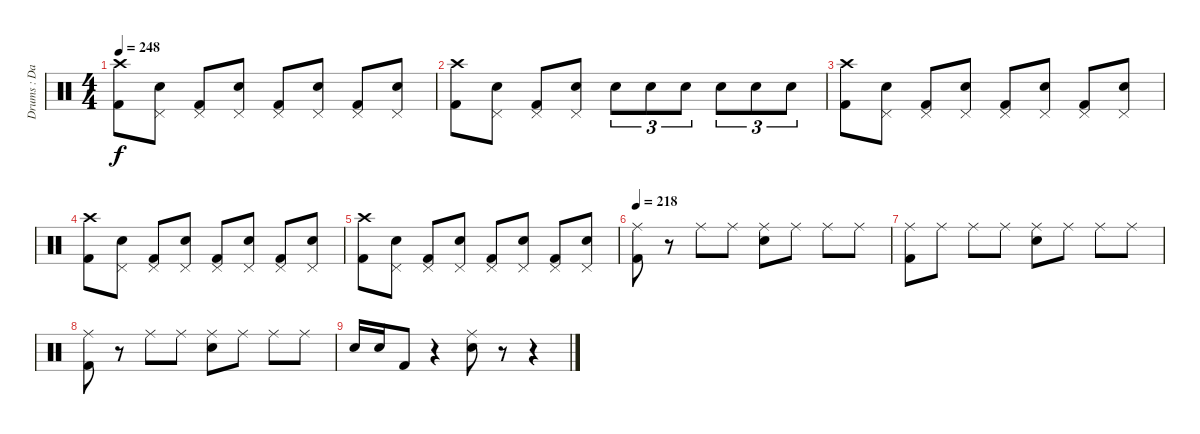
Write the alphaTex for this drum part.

\track ("Drums : Dave Lombardo" "Drums : Da") {instrument percussion}
\staff {score}
\articulation defaults
\ts (4 4)
\tempo 248
\clef neutral
\ks c
("Crash high (hit)" "Kick (hit) 2").8{dy f} ("Pedal Hi-Hat (hit)" "Electric Snare (hit)").8 ("Pedal Hi-Hat (hit)" "Kick (hit) 2").8 ("Pedal Hi-Hat (hit)" "Electric Snare (hit)").8 ("Pedal Hi-Hat (hit)" "Kick (hit) 2").8 ("Pedal Hi-Hat (hit)" "Electric Snare (hit)").8 ("Pedal Hi-Hat (hit)" "Kick (hit) 2").8 ("Pedal Hi-Hat (hit)" "Electric Snare (hit)").8 |
("Crash high (hit)" "Kick (hit) 2").8 ("Pedal Hi-Hat (hit)" "Electric Snare (hit)").8 ("Pedal Hi-Hat (hit)" "Kick (hit) 2").8 ("Pedal Hi-Hat (hit)" "Electric Snare (hit)").8 "Electric Snare (hit)".8{tu (3 2)} "Electric Snare (hit)".8{tu (3 2)} "Electric Snare (hit)".8{tu (3 2)} "Electric Snare (hit)".8{tu (3 2)} "Electric Snare (hit)".8{tu (3 2)} "Electric Snare (hit)".8{tu (3 2)} |
("Crash high (hit)" "Kick (hit) 2").8 ("Pedal Hi-Hat (hit)" "Electric Snare (hit)").8 ("Pedal Hi-Hat (hit)" "Kick (hit) 2").8 ("Pedal Hi-Hat (hit)" "Electric Snare (hit)").8 ("Pedal Hi-Hat (hit)" "Kick (hit) 2").8 ("Pedal Hi-Hat (hit)" "Electric Snare (hit)").8 ("Pedal Hi-Hat (hit)" "Kick (hit) 2").8 ("Pedal Hi-Hat (hit)" "Electric Snare (hit)").8 |
("Crash high (hit)" "Kick (hit) 2").8 ("Pedal Hi-Hat (hit)" "Electric Snare (hit)").8 ("Pedal Hi-Hat (hit)" "Kick (hit) 2").8 ("Pedal Hi-Hat (hit)" "Electric Snare (hit)").8 ("Pedal Hi-Hat (hit)" "Kick (hit) 2").8 ("Pedal Hi-Hat (hit)" "Electric Snare (hit)").8 ("Pedal Hi-Hat (hit)" "Kick (hit) 2").8 ("Pedal Hi-Hat (hit)" "Electric Snare (hit)").8 |
("Crash high (hit)" "Kick (hit) 2").8 ("Pedal Hi-Hat (hit)" "Electric Snare (hit)").8 ("Pedal Hi-Hat (hit)" "Kick (hit) 2").8 ("Pedal Hi-Hat (hit)" "Electric Snare (hit)").8 ("Pedal Hi-Hat (hit)" "Kick (hit) 2").8 ("Pedal Hi-Hat (hit)" "Electric Snare (hit)").8 ("Pedal Hi-Hat (hit)" "Kick (hit) 2").8 ("Pedal Hi-Hat (hit)" "Electric Snare (hit)").8 |
\tempo 218
("Ride (middle)" "Kick (hit) 2").8 r.8 "Ride (middle)".8 "Ride (middle)".8 ("Ride (middle)" "Electric Snare (hit)").8 "Ride (middle)".8 "Ride (middle)".8 "Ride (middle)".8 |
("Ride (middle)" "Kick (hit) 2").8 "Ride (middle)".8 "Ride (middle)".8 "Ride (middle)".8 ("Ride (middle)" "Electric Snare (hit)").8 "Ride (middle)".8 "Ride (middle)".8 "Ride (middle)".8 |
("Ride (middle)" "Kick (hit) 2").8 r.8 "Ride (middle)".8 "Ride (middle)".8 ("Ride (middle)" "Electric Snare (hit)").8 "Ride (middle)".8 "Ride (middle)".8 "Ride (middle)".8 |
"Electric Snare (hit)".16 "Electric Snare (hit)".16 "Kick (hit) 2".8 r.4 ("Ride (middle)" "Electric Snare (hit)").8 r.8 r.4
